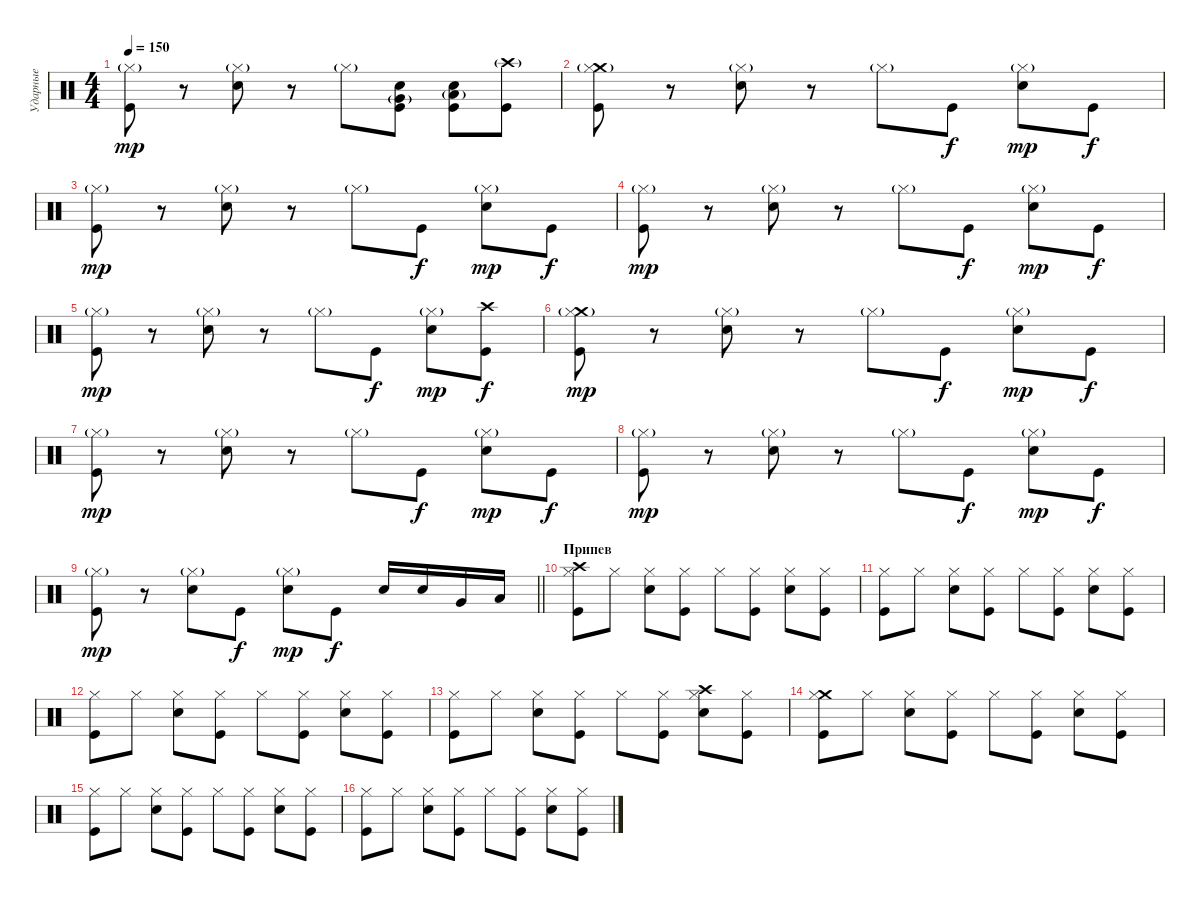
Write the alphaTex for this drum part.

\track ("Ударные" "Ударные") {instrument percussion}
\staff {score}
\articulation defaults
\ts (4 4)
\tempo 150
\clef neutral
\ks c
("Hi-Hat (closed)"{g} "Kick (hit)").8{dy mp} r.8 ("Hi-Hat (closed)"{g} "Electric Snare (hit)").8 r.8 "Hi-Hat (closed)"{g}.8 ("Very Low Tom (hit)"{g} "Electric Snare (hit)" "Kick (hit)").8 ("Low Floor Tom (hit)"{g} "Electric Snare (hit)" "Kick (hit)").8 ("Crash high (hit)"{g} "Kick (hit)").8 |
("Crash medium (hit)"{g} "Hi-Hat (closed)"{g} "Kick (hit)").8 r.8 ("Hi-Hat (closed)"{g} "Electric Snare (hit)").8 r.8 "Hi-Hat (closed)"{g}.8 "Kick (hit)".8{dy f} ("Hi-Hat (closed)"{g} "Electric Snare (hit)").8{dy mp} "Kick (hit)".8{dy f} |
("Hi-Hat (closed)"{g} "Kick (hit)").8{dy mp} r.8 ("Hi-Hat (closed)"{g} "Electric Snare (hit)").8 r.8 "Hi-Hat (closed)"{g}.8 "Kick (hit)".8{dy f} ("Hi-Hat (closed)"{g} "Electric Snare (hit)").8{dy mp} "Kick (hit)".8{dy f} |
("Hi-Hat (closed)"{g} "Kick (hit)").8{dy mp} r.8 ("Hi-Hat (closed)"{g} "Electric Snare (hit)").8 r.8 "Hi-Hat (closed)"{g}.8 "Kick (hit)".8{dy f} ("Hi-Hat (closed)"{g} "Electric Snare (hit)").8{dy mp} "Kick (hit)".8{dy f} |
("Hi-Hat (closed)"{g} "Kick (hit)").8{dy mp} r.8 ("Hi-Hat (closed)"{g} "Electric Snare (hit)").8 r.8 "Hi-Hat (closed)"{g}.8 "Kick (hit)".8{dy f} ("Hi-Hat (closed)"{g} "Electric Snare (hit)").8{dy mp} ("Crash high (hit)" "Kick (hit)").8{dy f} |
("Crash medium (hit)" "Hi-Hat (closed)"{g} "Kick (hit)").8{dy mp} r.8 ("Hi-Hat (closed)"{g} "Electric Snare (hit)").8 r.8 "Hi-Hat (closed)"{g}.8 "Kick (hit)".8{dy f} ("Hi-Hat (closed)"{g} "Electric Snare (hit)").8{dy mp} "Kick (hit)".8{dy f} |
("Hi-Hat (closed)"{g} "Kick (hit)").8{dy mp} r.8 ("Hi-Hat (closed)"{g} "Electric Snare (hit)").8 r.8 "Hi-Hat (closed)"{g}.8 "Kick (hit)".8{dy f} ("Hi-Hat (closed)"{g} "Electric Snare (hit)").8{dy mp} "Kick (hit)".8{dy f} |
("Hi-Hat (closed)"{g} "Kick (hit)").8{dy mp} r.8 ("Hi-Hat (closed)"{g} "Electric Snare (hit)").8 r.8 "Hi-Hat (closed)"{g}.8 "Kick (hit)".8{dy f} ("Hi-Hat (closed)"{g} "Electric Snare (hit)").8{dy mp} "Kick (hit)".8{dy f} |
\barLineRight lightlight
("Hi-Hat (closed)"{g} "Kick (hit)").8{dy mp} r.8 ("Hi-Hat (closed)"{g} "Electric Snare (hit)").8 "Kick (hit)".8{dy f} ("Hi-Hat (closed)"{g} "Electric Snare (hit)").8{dy mp} "Kick (hit)".8{dy f} "Electric Snare (hit)".16 "Electric Snare (hit)".16 "Very Low Tom (hit)".16 "Low Floor Tom (hit)".16 |
\section ("" "Припев")
("Crash high (hit)" "Hi-Hat (closed)" "Kick (hit)").8 "Hi-Hat (closed)".8 ("Hi-Hat (closed)" "Electric Snare (hit)").8 ("Hi-Hat (closed)" "Kick (hit)").8 "Hi-Hat (closed)".8 ("Hi-Hat (closed)" "Kick (hit)").8 ("Hi-Hat (closed)" "Electric Snare (hit)").8 ("Hi-Hat (closed)" "Kick (hit)").8 |
("Hi-Hat (closed)" "Kick (hit)").8 "Hi-Hat (closed)".8 ("Hi-Hat (closed)" "Electric Snare (hit)").8 ("Hi-Hat (closed)" "Kick (hit)").8 "Hi-Hat (closed)".8 ("Hi-Hat (closed)" "Kick (hit)").8 ("Hi-Hat (closed)" "Electric Snare (hit)").8 ("Hi-Hat (closed)" "Kick (hit)").8 |
("Hi-Hat (closed)" "Kick (hit)").8 "Hi-Hat (closed)".8 ("Hi-Hat (closed)" "Electric Snare (hit)").8 ("Hi-Hat (closed)" "Kick (hit)").8 "Hi-Hat (closed)".8 ("Hi-Hat (closed)" "Kick (hit)").8 ("Hi-Hat (closed)" "Electric Snare (hit)").8 ("Hi-Hat (closed)" "Kick (hit)").8 |
("Hi-Hat (closed)" "Kick (hit)").8 "Hi-Hat (closed)".8 ("Hi-Hat (closed)" "Electric Snare (hit)").8 ("Hi-Hat (closed)" "Kick (hit)").8 "Hi-Hat (closed)".8 ("Hi-Hat (closed)" "Kick (hit)").8 ("Crash high (hit)" "Hi-Hat (closed)" "Electric Snare (hit)").8 ("Hi-Hat (closed)" "Kick (hit)").8 |
("Crash medium (hit)" "Hi-Hat (closed)" "Kick (hit)").8 "Hi-Hat (closed)".8 ("Hi-Hat (closed)" "Electric Snare (hit)").8 ("Hi-Hat (closed)" "Kick (hit)").8 "Hi-Hat (closed)".8 ("Hi-Hat (closed)" "Kick (hit)").8 ("Hi-Hat (closed)" "Electric Snare (hit)").8 ("Hi-Hat (closed)" "Kick (hit)").8 |
("Hi-Hat (closed)" "Kick (hit)").8 "Hi-Hat (closed)".8 ("Hi-Hat (closed)" "Electric Snare (hit)").8 ("Hi-Hat (closed)" "Kick (hit)").8 "Hi-Hat (closed)".8 ("Hi-Hat (closed)" "Kick (hit)").8 ("Hi-Hat (closed)" "Electric Snare (hit)").8 ("Hi-Hat (closed)" "Kick (hit)").8 |
("Hi-Hat (closed)" "Kick (hit)").8 "Hi-Hat (closed)".8 ("Hi-Hat (closed)" "Electric Snare (hit)").8 ("Hi-Hat (closed)" "Kick (hit)").8 "Hi-Hat (closed)".8 ("Hi-Hat (closed)" "Kick (hit)").8 ("Hi-Hat (closed)" "Electric Snare (hit)").8 ("Hi-Hat (closed)" "Kick (hit)").8
